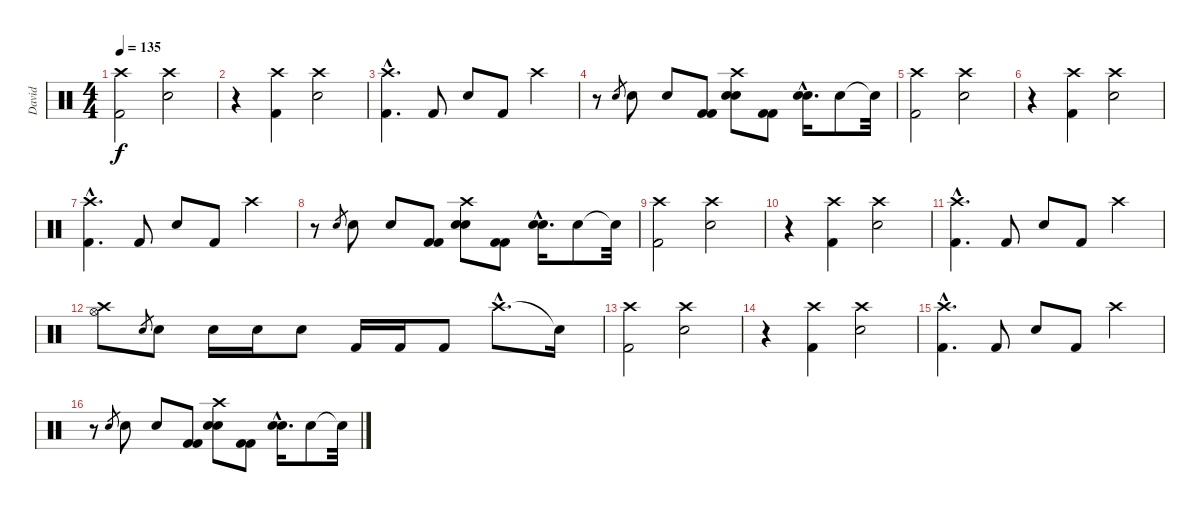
\track ("David" "David") {instrument percussion}
\staff {score}
\articulation defaults
\ts (4 4)
\tempo 135
\clef neutral
\ks c
("Crash high (hit)" "Kick (hit) 2").2{dy f} ("Crash high (hit)" "Electric Snare (hit)").2 |
r.4 ("Crash high (hit)" "Kick (hit) 2").4 ("Crash high (hit)" "Electric Snare (hit)").2 |
("Crash high (hit)"{hac} "Kick (hit) 2"{hac}).4{d} "Kick (hit) 2".8 "Electric Snare (hit)".8 "Kick (hit) 2".8 "Crash high (hit)".4 |
r.8 "Electric Snare (hit)".8{gr} "Electric Snare (hit)".8 "Electric Snare (hit)".8 ("Kick (hit) 2" "Kick (hit) 2").8 ("Crash high (hit)" "Electric Snare (hit)" "Electric Snare (hit)").8 ("Kick (hit) 2" "Kick (hit) 2").8 ("Electric Snare (hit)"{hac} "Electric Snare (hit)"{hac}).16{d} "Electric Snare (hit)".8 "Snare (hit)"{t}.32 |
("Crash high (hit)" "Kick (hit) 2").2 ("Crash high (hit)" "Electric Snare (hit)").2 |
r.4 ("Crash high (hit)" "Kick (hit) 2").4 ("Crash high (hit)" "Electric Snare (hit)").2 |
("Crash high (hit)"{hac} "Kick (hit) 2"{hac}).4{d} "Kick (hit) 2".8 "Electric Snare (hit)".8 "Kick (hit) 2".8 "Crash high (hit)".4 |
r.8 "Electric Snare (hit)".8{gr} "Electric Snare (hit)".8 "Electric Snare (hit)".8 ("Kick (hit) 2" "Kick (hit) 2").8 ("Crash high (hit)" "Electric Snare (hit)" "Electric Snare (hit)").8 ("Kick (hit) 2" "Kick (hit) 2").8 ("Electric Snare (hit)"{hac} "Electric Snare (hit)"{hac}).16{d} "Electric Snare (hit)".8 "Snare (hit)"{t}.32 |
("Crash high (hit)" "Kick (hit) 2").2 ("Crash high (hit)" "Electric Snare (hit)").2 |
r.4 ("Crash high (hit)" "Kick (hit) 2").4 ("Crash high (hit)" "Electric Snare (hit)").2 |
("Crash high (hit)"{hac} "Kick (hit) 2"{hac}).4{d} "Kick (hit) 2".8 "Electric Snare (hit)".8 "Kick (hit) 2".8 "Crash high (hit)".4 |
("Crash high (hit)" "Hi-Hat (open)").8 "Electric Snare (hit)".8{gr} "Electric Snare (hit)".8 "Electric Snare (hit)".16 "Electric Snare (hit)".16 "Electric Snare (hit)".8 "Kick (hit) 2".16 "Kick (hit) 2".16 "Kick (hit) 2".8 "Crash high (hit)"{hac}.8{d} "Snare (hit)"{t}.16 |
("Crash high (hit)" "Kick (hit) 2").2 ("Crash high (hit)" "Electric Snare (hit)").2 |
r.4 ("Crash high (hit)" "Kick (hit) 2").4 ("Crash high (hit)" "Electric Snare (hit)").2 |
("Crash high (hit)"{hac} "Kick (hit) 2"{hac}).4{d} "Kick (hit) 2".8 "Electric Snare (hit)".8 "Kick (hit) 2".8 "Crash high (hit)".4 |
r.8 "Electric Snare (hit)".8{gr} "Electric Snare (hit)".8 "Electric Snare (hit)".8 ("Kick (hit) 2" "Kick (hit) 2").8 ("Crash high (hit)" "Electric Snare (hit)" "Electric Snare (hit)").8 ("Kick (hit) 2" "Kick (hit) 2").8 ("Electric Snare (hit)"{hac} "Electric Snare (hit)"{hac}).16{d} "Electric Snare (hit)".8 "Snare (hit)"{t}.32
